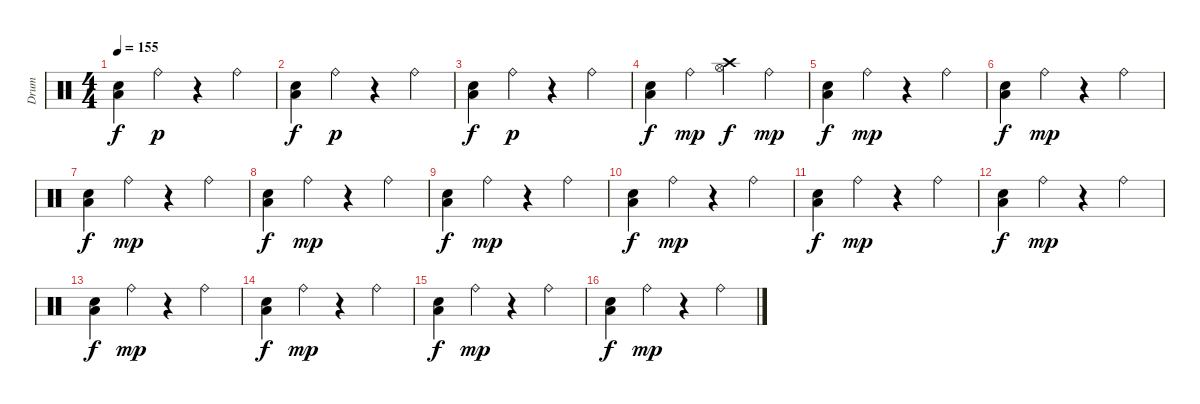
\track ("Drum" "Drum") {instrument percussion}
\staff {score}
\articulation defaults
\ts (4 4)
\tempo 155
\clef neutral
\ks c
("Low Floor Tom (hit)" "Snare (hit) 2").4{dy f} "Ride (bell)".4{dy p} r.4 "Ride (bell)".4 |
("Low Floor Tom (hit)" "Snare (hit) 2").4{dy f} "Ride (bell)".4{dy p} r.4 "Ride (bell)".4 |
("Low Floor Tom (hit)" "Snare (hit) 2").4{dy f} "Ride (bell)".4{dy p} r.4 "Ride (bell)".4 |
("Low Floor Tom (hit)" "Snare (hit) 2").4{dy f} "Ride (bell)".4{dy mp} ("Hi-Hat (open)" "Crash high (hit)").4{dy f} "Ride (bell)".4{dy mp} |
("Low Floor Tom (hit)" "Snare (hit) 2").4{dy f} "Ride (bell)".4{dy mp} r.4 "Ride (bell)".4 |
("Low Floor Tom (hit)" "Snare (hit) 2").4{dy f} "Ride (bell)".4{dy mp} r.4 "Ride (bell)".4 |
("Low Floor Tom (hit)" "Snare (hit) 2").4{dy f} "Ride (bell)".4{dy mp} r.4 "Ride (bell)".4 |
("Low Floor Tom (hit)" "Snare (hit) 2").4{dy f} "Ride (bell)".4{dy mp} r.4 "Ride (bell)".4 |
("Low Floor Tom (hit)" "Snare (hit) 2").4{dy f} "Ride (bell)".4{dy mp} r.4 "Ride (bell)".4 |
("Low Floor Tom (hit)" "Snare (hit) 2").4{dy f} "Ride (bell)".4{dy mp} r.4 "Ride (bell)".4 |
("Low Floor Tom (hit)" "Snare (hit) 2").4{dy f} "Ride (bell)".4{dy mp} r.4 "Ride (bell)".4 |
("Low Floor Tom (hit)" "Snare (hit) 2").4{dy f} "Ride (bell)".4{dy mp} r.4 "Ride (bell)".4 |
("Low Floor Tom (hit)" "Snare (hit) 2").4{dy f} "Ride (bell)".4{dy mp} r.4 "Ride (bell)".4 |
("Low Floor Tom (hit)" "Snare (hit) 2").4{dy f} "Ride (bell)".4{dy mp} r.4 "Ride (bell)".4 |
("Low Floor Tom (hit)" "Snare (hit) 2").4{dy f} "Ride (bell)".4{dy mp} r.4 "Ride (bell)".4 |
("Low Floor Tom (hit)" "Snare (hit) 2").4{dy f} "Ride (bell)".4{dy mp} r.4 "Ride (bell)".4
